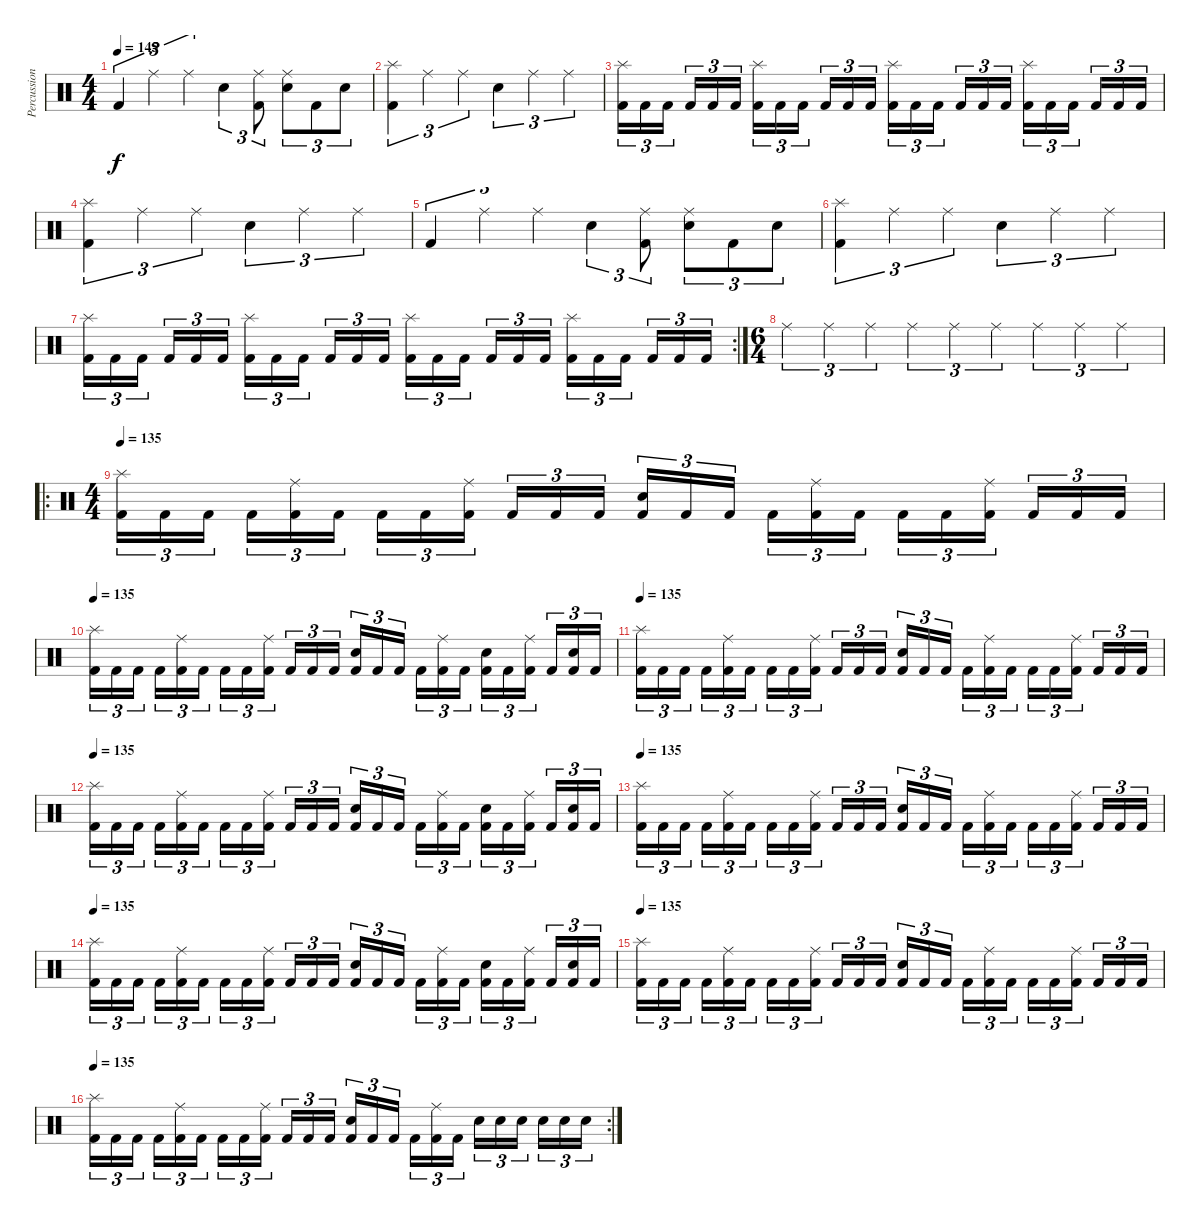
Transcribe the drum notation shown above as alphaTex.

\track ("Percussions" "Percussion") {instrument percussion}
\staff {score}
\articulation defaults
\ts (4 4)
\tempo 145
\clef neutral
\ks c "Kick (hit) 2".4{tu (3 2) dy f} "Ride (middle)".4{tu (3 2)} "Ride (middle)".4{tu (3 2)} "Electric Snare (hit)".4{tu (3 2)}
("Ride (middle)" "Kick (hit) 2").8{tu (3 2)} ("Ride (middle)" "Electric Snare (hit)").8{tu (3 2)} "Kick (hit) 2".8{tu (3 2)} "Electric Snare (hit)".8{tu (3 2)} |
("Splash (hit)" "Kick (hit) 2").4{tu (3 2)} "Ride (middle)".4{tu (3 2)} "Ride (middle)".4{tu (3 2)} "Electric Snare (hit)".4{tu (3 2)} "Ride (middle)".4{tu (3 2)} "Ride (middle)".4{tu (3 2)} |
("Splash (hit)" "Kick (hit) 2").16{tu (3 2)} "Kick (hit) 2".16{tu (3 2)} "Kick (hit) 2".16{tu (3 2)} "Kick (hit) 2".16{tu (3 2)} "Kick (hit) 2".16{tu (3 2)} "Kick (hit) 2".16{tu (3 2)} ("Splash (hit)" "Kick (hit) 2").16{tu (3 2)} "Kick (hit) 2".16{tu (3 2)} "Kick (hit) 2".16{tu (3 2)} "Kick (hit) 2".16{tu (3 2)} "Kick (hit) 2".16{tu (3 2)} "Kick (hit) 2".16{tu (3 2)} ("Splash (hit)" "Kick (hit) 2").16{tu (3 2)} "Kick (hit) 2".16{tu (3 2)} "Kick (hit) 2".16{tu (3 2)} "Kick (hit) 2".16{tu (3 2)} "Kick (hit) 2".16{tu (3 2)} "Kick (hit) 2".16{tu (3 2)} ("Splash (hit)" "Kick (hit) 2").16{tu (3 2)} "Kick (hit) 2".16{tu (3 2)} "Kick (hit) 2".16{tu (3 2)} "Kick (hit) 2".16{tu (3 2)} "Kick (hit) 2".16{tu (3 2)} "Kick (hit) 2".16{tu (3 2)} |
("Splash (hit)" "Kick (hit) 2").4{tu (3 2)} "Ride (middle)".4{tu (3 2)} "Ride (middle)".4{tu (3 2)} "Electric Snare (hit)".4{tu (3 2)} "Ride (middle)".4{tu (3 2)} "Ride (middle)".4{tu (3 2)} |
"Kick (hit) 2".4{tu (3 2)} "Ride (middle)".4{tu (3 2)} "Ride (middle)".4{tu (3 2)} "Electric Snare (hit)".4{tu (3 2)} ("Ride (middle)" "Kick (hit) 2").8{tu (3 2)} ("Ride (middle)" "Electric Snare (hit)").8{tu (3 2)} "Kick (hit) 2".8{tu (3 2)} "Electric Snare (hit)".8{tu (3 2)} |
("Splash (hit)" "Kick (hit) 2").4{tu (3 2)} "Ride (middle)".4{tu (3 2)} "Ride (middle)".4{tu (3 2)} "Electric Snare (hit)".4{tu (3 2)} "Ride (middle)".4{tu (3 2)} "Ride (middle)".4{tu (3 2)} |
\rc 2
("Splash (hit)" "Kick (hit) 2").16{tu (3 2)} "Kick (hit) 2".16{tu (3 2)} "Kick (hit) 2".16{tu (3 2)} "Kick (hit) 2".16{tu (3 2)} "Kick (hit) 2".16{tu (3 2)} "Kick (hit) 2".16{tu (3 2)} ("Splash (hit)" "Kick (hit) 2").16{tu (3 2)} "Kick (hit) 2".16{tu (3 2)} "Kick (hit) 2".16{tu (3 2)} "Kick (hit) 2".16{tu (3 2)} "Kick (hit) 2".16{tu (3 2)} "Kick (hit) 2".16{tu (3 2)} ("Splash (hit)" "Kick (hit) 2").16{tu (3 2)} "Kick (hit) 2".16{tu (3 2)} "Kick (hit) 2".16{tu (3 2)} "Kick (hit) 2".16{tu (3 2)} "Kick (hit) 2".16{tu (3 2)} "Kick (hit) 2".16{tu (3 2)} ("Splash (hit)" "Kick (hit) 2").16{tu (3 2)} "Kick (hit) 2".16{tu (3 2)} "Kick (hit) 2".16{tu (3 2)} "Kick (hit) 2".16{tu (3 2)} "Kick (hit) 2".16{tu (3 2)} "Kick (hit) 2".16{tu (3 2)} |
\ts (6 4)
"Ride (middle)".4{tu (3 2)} "Ride (middle)".4{tu (3 2)} "Ride (middle)".4{tu (3 2)} "Ride (middle)".4{tu (3 2)} "Ride (middle)".4{tu (3 2)} "Ride (middle)".4{tu (3 2)} "Ride (middle)".4{tu (3 2)} "Ride (middle)".4{tu (3 2)} "Ride (middle)".4{tu (3 2)} |
\ro
\ts (4 4)
\tempo 135
("Splash (hit)" "Kick (hit) 2").16{tu (3 2)} "Kick (hit) 2".16{tu (3 2)} "Kick (hit) 2".16{tu (3 2)} "Kick (hit) 2".16{tu (3 2)} ("Ride (middle)" "Kick (hit) 2").16{tu (3 2)} "Kick (hit) 2".16{tu (3 2)} "Kick (hit) 2".16{tu (3 2)} "Kick (hit) 2".16{tu (3 2)} ("Ride (middle)" "Kick (hit) 2").16{tu (3 2)} "Kick (hit) 2".16{tu (3 2)} "Kick (hit) 2".16{tu (3 2)} "Kick (hit) 2".16{tu (3 2)} ("Electric Snare (hit)" "Kick (hit) 2").16{tu (3 2)} "Kick (hit) 2".16{tu (3 2)} "Kick (hit) 2".16{tu (3 2)} "Kick (hit) 2".16{tu (3 2)} ("Ride (middle)" "Kick (hit) 2").16{tu (3 2)} "Kick (hit) 2".16{tu (3 2)} "Kick (hit) 2".16{tu (3 2)} "Kick (hit) 2".16{tu (3 2)} ("Ride (middle)" "Kick (hit) 2").16{tu (3 2)} "Kick (hit) 2".16{tu (3 2)} "Kick (hit) 2".16{tu (3 2)} "Kick (hit) 2".16{tu (3 2)} |
\tempo 135
("Splash (hit)" "Kick (hit) 2").16{tu (3 2)} "Kick (hit) 2".16{tu (3 2)} "Kick (hit) 2".16{tu (3 2)} "Kick (hit) 2".16{tu (3 2)} ("Ride (middle)" "Kick (hit) 2").16{tu (3 2)} "Kick (hit) 2".16{tu (3 2)} "Kick (hit) 2".16{tu (3 2)} "Kick (hit) 2".16{tu (3 2)} ("Ride (middle)" "Kick (hit) 2").16{tu (3 2)} "Kick (hit) 2".16{tu (3 2)} "Kick (hit) 2".16{tu (3 2)} "Kick (hit) 2".16{tu (3 2)} ("Electric Snare (hit)" "Kick (hit) 2").16{tu (3 2)} "Kick (hit) 2".16{tu (3 2)} "Kick (hit) 2".16{tu (3 2)} "Kick (hit) 2".16{tu (3 2)} ("Ride (middle)" "Kick (hit) 2").16{tu (3 2)} "Kick (hit) 2".16{tu (3 2)} ("Electric Snare (hit)" "Kick (hit) 2").16{tu (3 2)} "Kick (hit) 2".16{tu (3 2)} ("Ride (middle)" "Kick (hit) 2").16{tu (3 2)} "Kick (hit) 2".16{tu (3 2)} ("Electric Snare (hit)" "Kick (hit) 2").16{tu (3 2)} "Kick (hit) 2".16{tu (3 2)} |
\tempo 135
("Splash (hit)" "Kick (hit) 2").16{tu (3 2)} "Kick (hit) 2".16{tu (3 2)} "Kick (hit) 2".16{tu (3 2)} "Kick (hit) 2".16{tu (3 2)} ("Ride (middle)" "Kick (hit) 2").16{tu (3 2)} "Kick (hit) 2".16{tu (3 2)} "Kick (hit) 2".16{tu (3 2)} "Kick (hit) 2".16{tu (3 2)} ("Ride (middle)" "Kick (hit) 2").16{tu (3 2)} "Kick (hit) 2".16{tu (3 2)} "Kick (hit) 2".16{tu (3 2)} "Kick (hit) 2".16{tu (3 2)} ("Electric Snare (hit)" "Kick (hit) 2").16{tu (3 2)} "Kick (hit) 2".16{tu (3 2)} "Kick (hit) 2".16{tu (3 2)} "Kick (hit) 2".16{tu (3 2)} ("Ride (middle)" "Kick (hit) 2").16{tu (3 2)} "Kick (hit) 2".16{tu (3 2)} "Kick (hit) 2".16{tu (3 2)} "Kick (hit) 2".16{tu (3 2)} ("Ride (middle)" "Kick (hit) 2").16{tu (3 2)} "Kick (hit) 2".16{tu (3 2)} "Kick (hit) 2".16{tu (3 2)} "Kick (hit) 2".16{tu (3 2)} |
\tempo 135
("Splash (hit)" "Kick (hit) 2").16{tu (3 2)} "Kick (hit) 2".16{tu (3 2)} "Kick (hit) 2".16{tu (3 2)} "Kick (hit) 2".16{tu (3 2)} ("Ride (middle)" "Kick (hit) 2").16{tu (3 2)} "Kick (hit) 2".16{tu (3 2)} "Kick (hit) 2".16{tu (3 2)} "Kick (hit) 2".16{tu (3 2)} ("Ride (middle)" "Kick (hit) 2").16{tu (3 2)} "Kick (hit) 2".16{tu (3 2)} "Kick (hit) 2".16{tu (3 2)} "Kick (hit) 2".16{tu (3 2)} ("Electric Snare (hit)" "Kick (hit) 2").16{tu (3 2)} "Kick (hit) 2".16{tu (3 2)} "Kick (hit) 2".16{tu (3 2)} "Kick (hit) 2".16{tu (3 2)} ("Ride (middle)" "Kick (hit) 2").16{tu (3 2)} "Kick (hit) 2".16{tu (3 2)} ("Electric Snare (hit)" "Kick (hit) 2").16{tu (3 2)} "Kick (hit) 2".16{tu (3 2)} ("Ride (middle)" "Kick (hit) 2").16{tu (3 2)} "Kick (hit) 2".16{tu (3 2)} ("Electric Snare (hit)" "Kick (hit) 2").16{tu (3 2)} "Kick (hit) 2".16{tu (3 2)} |
\tempo 135
("Splash (hit)" "Kick (hit) 2").16{tu (3 2)} "Kick (hit) 2".16{tu (3 2)} "Kick (hit) 2".16{tu (3 2)} "Kick (hit) 2".16{tu (3 2)} ("Ride (middle)" "Kick (hit) 2").16{tu (3 2)} "Kick (hit) 2".16{tu (3 2)} "Kick (hit) 2".16{tu (3 2)} "Kick (hit) 2".16{tu (3 2)} ("Ride (middle)" "Kick (hit) 2").16{tu (3 2)} "Kick (hit) 2".16{tu (3 2)} "Kick (hit) 2".16{tu (3 2)} "Kick (hit) 2".16{tu (3 2)} ("Electric Snare (hit)" "Kick (hit) 2").16{tu (3 2)} "Kick (hit) 2".16{tu (3 2)} "Kick (hit) 2".16{tu (3 2)} "Kick (hit) 2".16{tu (3 2)} ("Ride (middle)" "Kick (hit) 2").16{tu (3 2)} "Kick (hit) 2".16{tu (3 2)} "Kick (hit) 2".16{tu (3 2)} "Kick (hit) 2".16{tu (3 2)} ("Ride (middle)" "Kick (hit) 2").16{tu (3 2)} "Kick (hit) 2".16{tu (3 2)} "Kick (hit) 2".16{tu (3 2)} "Kick (hit) 2".16{tu (3 2)} |
\tempo 135
("Splash (hit)" "Kick (hit) 2").16{tu (3 2)} "Kick (hit) 2".16{tu (3 2)} "Kick (hit) 2".16{tu (3 2)} "Kick (hit) 2".16{tu (3 2)} ("Ride (middle)" "Kick (hit) 2").16{tu (3 2)} "Kick (hit) 2".16{tu (3 2)} "Kick (hit) 2".16{tu (3 2)} "Kick (hit) 2".16{tu (3 2)} ("Ride (middle)" "Kick (hit) 2").16{tu (3 2)} "Kick (hit) 2".16{tu (3 2)} "Kick (hit) 2".16{tu (3 2)} "Kick (hit) 2".16{tu (3 2)} ("Electric Snare (hit)" "Kick (hit) 2").16{tu (3 2)} "Kick (hit) 2".16{tu (3 2)} "Kick (hit) 2".16{tu (3 2)} "Kick (hit) 2".16{tu (3 2)} ("Ride (middle)" "Kick (hit) 2").16{tu (3 2)} "Kick (hit) 2".16{tu (3 2)} ("Electric Snare (hit)" "Kick (hit) 2").16{tu (3 2)} "Kick (hit) 2".16{tu (3 2)} ("Ride (middle)" "Kick (hit) 2").16{tu (3 2)} "Kick (hit) 2".16{tu (3 2)} ("Electric Snare (hit)" "Kick (hit) 2").16{tu (3 2)} "Kick (hit) 2".16{tu (3 2)} |
\tempo 135
("Splash (hit)" "Kick (hit) 2").16{tu (3 2)} "Kick (hit) 2".16{tu (3 2)} "Kick (hit) 2".16{tu (3 2)} "Kick (hit) 2".16{tu (3 2)} ("Ride (middle)" "Kick (hit) 2").16{tu (3 2)} "Kick (hit) 2".16{tu (3 2)} "Kick (hit) 2".16{tu (3 2)} "Kick (hit) 2".16{tu (3 2)} ("Ride (middle)" "Kick (hit) 2").16{tu (3 2)} "Kick (hit) 2".16{tu (3 2)} "Kick (hit) 2".16{tu (3 2)} "Kick (hit) 2".16{tu (3 2)} ("Electric Snare (hit)" "Kick (hit) 2").16{tu (3 2)} "Kick (hit) 2".16{tu (3 2)} "Kick (hit) 2".16{tu (3 2)} "Kick (hit) 2".16{tu (3 2)} ("Ride (middle)" "Kick (hit) 2").16{tu (3 2)} "Kick (hit) 2".16{tu (3 2)} "Kick (hit) 2".16{tu (3 2)} "Kick (hit) 2".16{tu (3 2)} ("Ride (middle)" "Kick (hit) 2").16{tu (3 2)} "Kick (hit) 2".16{tu (3 2)} "Kick (hit) 2".16{tu (3 2)} "Kick (hit) 2".16{tu (3 2)} |
\rc 2
\tempo 135
("Splash (hit)" "Kick (hit) 2").16{tu (3 2)} "Kick (hit) 2".16{tu (3 2)} "Kick (hit) 2".16{tu (3 2)} "Kick (hit) 2".16{tu (3 2)} ("Ride (middle)" "Kick (hit) 2").16{tu (3 2)} "Kick (hit) 2".16{tu (3 2)} "Kick (hit) 2".16{tu (3 2)} "Kick (hit) 2".16{tu (3 2)} ("Ride (middle)" "Kick (hit) 2").16{tu (3 2)} "Kick (hit) 2".16{tu (3 2)} "Kick (hit) 2".16{tu (3 2)} "Kick (hit) 2".16{tu (3 2)} ("Electric Snare (hit)" "Kick (hit) 2").16{tu (3 2)} "Kick (hit) 2".16{tu (3 2)} "Kick (hit) 2".16{tu (3 2)} "Kick (hit) 2".16{tu (3 2)} ("Ride (middle)" "Kick (hit) 2").16{tu (3 2)} "Kick (hit) 2".16{tu (3 2)} "Electric Snare (hit)".16{tu (3 2)} "Electric Snare (hit)".16{tu (3 2)} "Electric Snare (hit)".16{tu (3 2)} "Electric Snare (hit)".16{tu (3 2)} "Electric Snare (hit)".16{tu (3 2)} "Electric Snare (hit)".16{tu (3 2)}
